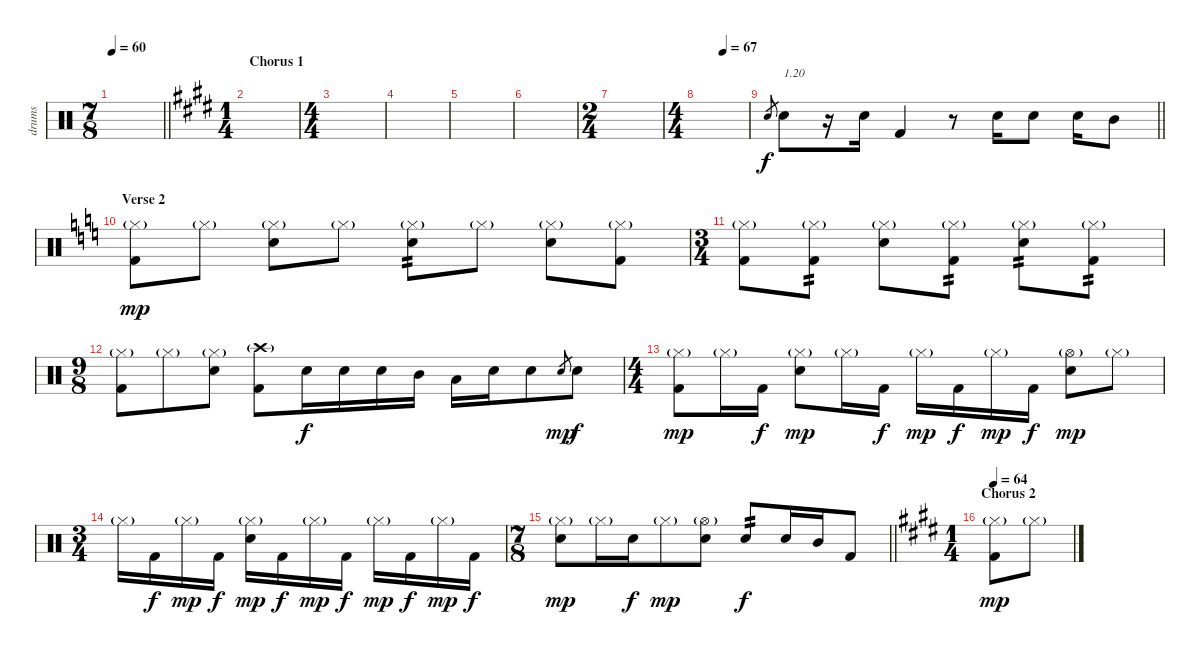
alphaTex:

\track ("drums" "drums") {instrument percussion}
\staff {score}
\articulation defaults
\ts (7 8)
\tempo 60
\clef neutral
\barLineRight lightlight
\ks c
|
\ts (1 4)
\section ("" "Chorus 1")
\ks e
|
\ts (4 4)
|
|
|
|
\ts (2 4)
|
\ts (4 4)
\tempo (67 0.5)
|
\barLineRight lightlight "Electric Snare (hit)".8{gr} "Electric Snare (hit)".8{txt "1.20" dy f}
r.16 "Electric Snare (hit)".16 "Kick (hit) 2".4 r.8 "Electric Snare (hit)".16 "Electric Snare (hit)".8 "Electric Snare (hit)".16 "Mid Tom (hit)".8 |
\section ("" "Verse 2")
\ks c
("Hi-Hat (closed)"{g} "Kick (hit) 2").8{dy mp} "Hi-Hat (closed)"{g}.8 ("Hi-Hat (closed)"{g} "Electric Snare (hit)").8 "Hi-Hat (closed)"{g}.8 ("Hi-Hat (closed)"{g} "Electric Snare (hit)").8{tp 2} "Hi-Hat (closed)"{g}.8 ("Hi-Hat (closed)"{g} "Electric Snare (hit)").8 ("Hi-Hat (closed)"{g} "Kick (hit) 2").8 |
\ts (3 4)
("Hi-Hat (closed)"{g} "Kick (hit) 2").8 ("Hi-Hat (closed)"{g} "Kick (hit) 2").8{tp 2} ("Hi-Hat (closed)"{g} "Electric Snare (hit)").8 ("Hi-Hat (closed)"{g} "Kick (hit) 2").8{tp 2} ("Hi-Hat (closed)"{g} "Electric Snare (hit)").8{tp 2} ("Hi-Hat (closed)"{g} "Kick (hit) 2").8{tp 2} |
\ts (9 8)
("Hi-Hat (closed)"{g} "Kick (hit) 2").8 "Hi-Hat (closed)"{g}.8 ("Hi-Hat (closed)"{g} "Electric Snare (hit)").8 ("Crash high (hit)"{g} "Kick (hit) 2").8 "Electric Snare (hit)".16{dy f} "Electric Snare (hit)".16 "Electric Snare (hit)".16 "Mid Tom (hit)".16 "Low Tom (hit)".16 "Electric Snare (hit)".16 "Electric Snare (hit)".8 "Electric Snare (hit)".8{gr dy mp} "Electric Snare (hit)".8{dy f} |
\ts (4 4)
("Hi-Hat (closed)"{g} "Kick (hit) 2").8{dy mp} "Hi-Hat (closed)"{g}.16 "Kick (hit) 2".16{dy f} ("Hi-Hat (closed)"{g} "Electric Snare (hit)").8{dy mp} "Hi-Hat (closed)"{g}.16 "Kick (hit) 2".16{dy f} "Hi-Hat (closed)"{g}.16{dy mp} "Kick (hit) 2".16{dy f} "Hi-Hat (closed)"{g}.16{dy mp} "Kick (hit) 2".16{dy f} ("Hi-Hat (open)"{g} "Electric Snare (hit)").8{dy mp} "Hi-Hat (closed)"{g}.8 |
\ts (3 4)
"Hi-Hat (closed)"{g}.16 "Kick (hit) 2".16{dy f} "Hi-Hat (closed)"{g}.16{dy mp} "Kick (hit) 2".16{dy f} ("Hi-Hat (closed)"{g} "Electric Snare (hit)").16{dy mp} "Kick (hit) 2".16{dy f} "Hi-Hat (closed)"{g}.16{dy mp} "Kick (hit) 2".16{dy f} "Hi-Hat (closed)"{g}.16{dy mp} "Kick (hit) 2".16{dy f} "Hi-Hat (closed)"{g}.16{dy mp} "Kick (hit) 2".16{dy f} |
\ts (7 8)
\barLineRight lightlight
("Hi-Hat (closed)"{g} "Electric Snare (hit)").8{dy mp} "Hi-Hat (closed)"{g}.16 "Electric Snare (hit)".16{dy f} "Hi-Hat (closed)"{g}.8{dy mp} ("Hi-Hat (open)"{g} "Electric Snare (hit)").8 "Electric Snare (hit)".8{tp 2 dy f} "Electric Snare (hit)".16 "Mid Tom (hit)".16 "Kick (hit) 2".8 |
\ts (1 4)
\section ("" "Chorus 2")
\tempo 64
\ks e
("Hi-Hat (closed)"{g} "Kick (hit) 2").8{dy mp} "Hi-Hat (closed)"{g}.8
